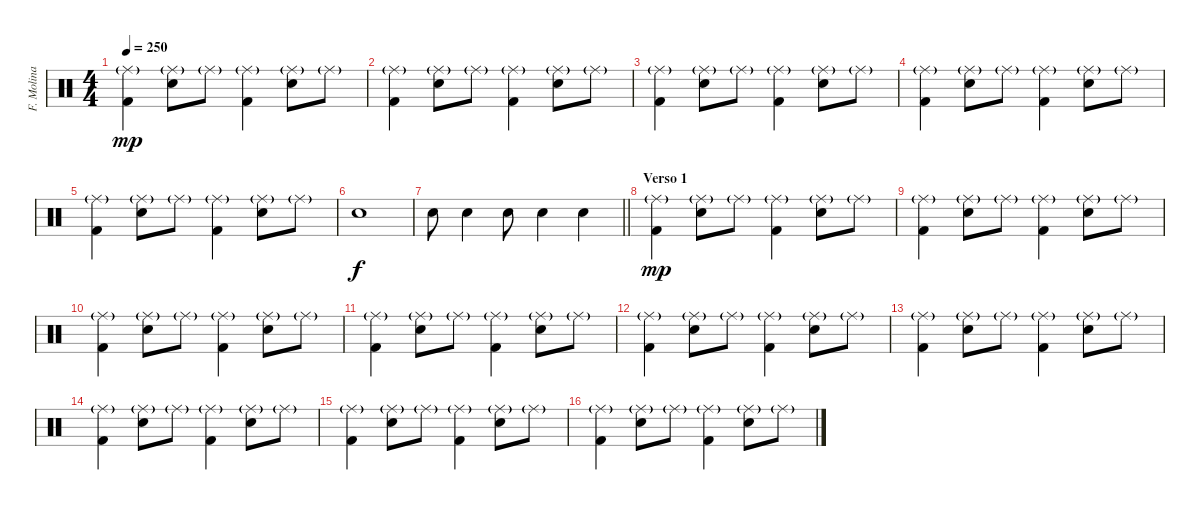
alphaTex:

\track ("F. Molina [Batería]" "F. Molina ") {instrument percussion}
\staff {score}
\articulation defaults
\ts (4 4)
\tempo 250
\clef neutral
\ks c
("Ride (middle)"{g} "Kick (hit) 2").4{dy mp} ("Ride (middle)"{g} "Electric Snare (hit)").8 "Ride (middle)"{g}.8 ("Ride (middle)"{g} "Kick (hit) 2").4 ("Ride (middle)"{g} "Electric Snare (hit)").8 "Ride (middle)"{g}.8 |
("Ride (middle)"{g} "Kick (hit) 2").4 ("Ride (middle)"{g} "Electric Snare (hit)").8 "Ride (middle)"{g}.8 ("Ride (middle)"{g} "Kick (hit) 2").4 ("Ride (middle)"{g} "Electric Snare (hit)").8 "Ride (middle)"{g}.8 |
("Ride (middle)"{g} "Kick (hit) 2").4 ("Ride (middle)"{g} "Electric Snare (hit)").8 "Ride (middle)"{g}.8 ("Ride (middle)"{g} "Kick (hit) 2").4 ("Ride (middle)"{g} "Electric Snare (hit)").8 "Ride (middle)"{g}.8 |
("Ride (middle)"{g} "Kick (hit) 2").4 ("Ride (middle)"{g} "Electric Snare (hit)").8 "Ride (middle)"{g}.8 ("Ride (middle)"{g} "Kick (hit) 2").4 ("Ride (middle)"{g} "Electric Snare (hit)").8 "Ride (middle)"{g}.8 |
("Ride (middle)"{g} "Kick (hit) 2").4 ("Ride (middle)"{g} "Electric Snare (hit)").8 "Ride (middle)"{g}.8 ("Ride (middle)"{g} "Kick (hit) 2").4 ("Ride (middle)"{g} "Electric Snare (hit)").8 "Ride (middle)"{g}.8 |
"Electric Snare (hit)".1{dy f} |
\barLineRight lightlight "Electric Snare (hit)".8 "Electric Snare (hit)".4 "Electric Snare (hit)".8 "Electric Snare (hit)".4 "Electric Snare (hit)".4
|
\section ("" "Verso 1")
("Ride (middle)"{g} "Kick (hit) 2").4{dy mp} ("Ride (middle)"{g} "Electric Snare (hit)").8 "Ride (middle)"{g}.8 ("Ride (middle)"{g} "Kick (hit) 2").4 ("Ride (middle)"{g} "Electric Snare (hit)").8 "Ride (middle)"{g}.8 |
("Ride (middle)"{g} "Kick (hit) 2").4 ("Ride (middle)"{g} "Electric Snare (hit)").8 "Ride (middle)"{g}.8 ("Ride (middle)"{g} "Kick (hit) 2").4 ("Ride (middle)"{g} "Electric Snare (hit)").8 "Ride (middle)"{g}.8 |
("Ride (middle)"{g} "Kick (hit) 2").4 ("Ride (middle)"{g} "Electric Snare (hit)").8 "Ride (middle)"{g}.8 ("Ride (middle)"{g} "Kick (hit) 2").4 ("Ride (middle)"{g} "Electric Snare (hit)").8 "Ride (middle)"{g}.8 |
("Ride (middle)"{g} "Kick (hit) 2").4 ("Ride (middle)"{g} "Electric Snare (hit)").8 "Ride (middle)"{g}.8 ("Ride (middle)"{g} "Kick (hit) 2").4 ("Ride (middle)"{g} "Electric Snare (hit)").8 "Ride (middle)"{g}.8 |
("Ride (middle)"{g} "Kick (hit) 2").4 ("Ride (middle)"{g} "Electric Snare (hit)").8 "Ride (middle)"{g}.8 ("Ride (middle)"{g} "Kick (hit) 2").4 ("Ride (middle)"{g} "Electric Snare (hit)").8 "Ride (middle)"{g}.8 |
("Ride (middle)"{g} "Kick (hit) 2").4 ("Ride (middle)"{g} "Electric Snare (hit)").8 "Ride (middle)"{g}.8 ("Ride (middle)"{g} "Kick (hit) 2").4 ("Ride (middle)"{g} "Electric Snare (hit)").8 "Ride (middle)"{g}.8 |
("Ride (middle)"{g} "Kick (hit) 2").4 ("Ride (middle)"{g} "Electric Snare (hit)").8 "Ride (middle)"{g}.8 ("Ride (middle)"{g} "Kick (hit) 2").4 ("Ride (middle)"{g} "Electric Snare (hit)").8 "Ride (middle)"{g}.8 |
("Ride (middle)"{g} "Kick (hit) 2").4 ("Ride (middle)"{g} "Electric Snare (hit)").8 "Ride (middle)"{g}.8 ("Ride (middle)"{g} "Kick (hit) 2").4 ("Ride (middle)"{g} "Electric Snare (hit)").8 "Ride (middle)"{g}.8 |
("Ride (middle)"{g} "Kick (hit) 2").4 ("Ride (middle)"{g} "Electric Snare (hit)").8 "Ride (middle)"{g}.8 ("Ride (middle)"{g} "Kick (hit) 2").4 ("Ride (middle)"{g} "Electric Snare (hit)").8 "Ride (middle)"{g}.8
